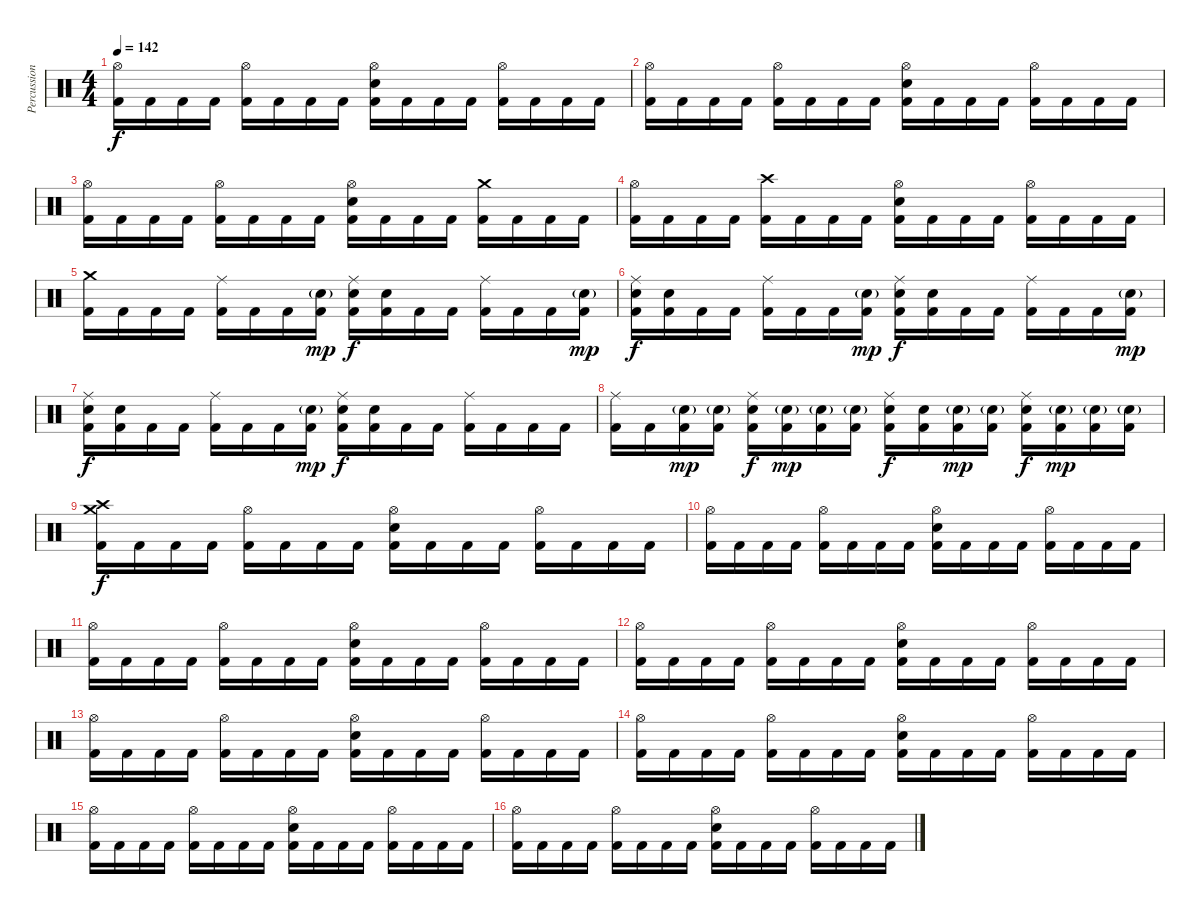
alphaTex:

\track ("Percussion" "Percussion") {instrument percussion}
\staff {score}
\articulation defaults
\ts (4 4)
\tempo 142
\clef neutral
\ks c
("Hi-Hat (open)" "Kick (hit) 2").16{dy f} "Kick (hit) 2".16 "Kick (hit) 2".16 "Kick (hit) 2".16 ("Hi-Hat (open)" "Kick (hit) 2").16 "Kick (hit) 2".16 "Kick (hit) 2".16 "Kick (hit) 2".16 ("Hi-Hat (open)" "Electric Snare (hit)" "Kick (hit) 2").16 "Kick (hit) 2".16 "Kick (hit) 2".16 "Kick (hit) 2".16 ("Hi-Hat (open)" "Kick (hit) 2").16 "Kick (hit) 2".16 "Kick (hit) 2".16 "Kick (hit) 2".16 |
("Hi-Hat (open)" "Kick (hit) 2").16 "Kick (hit) 2".16 "Kick (hit) 2".16 "Kick (hit) 2".16 ("Hi-Hat (open)" "Kick (hit) 2").16 "Kick (hit) 2".16 "Kick (hit) 2".16 "Kick (hit) 2".16 ("Hi-Hat (open)" "Electric Snare (hit)" "Kick (hit) 2").16 "Kick (hit) 2".16 "Kick (hit) 2".16 "Kick (hit) 2".16 ("Hi-Hat (open)" "Kick (hit) 2").16 "Kick (hit) 2".16 "Kick (hit) 2".16 "Kick (hit) 2".16 |
("Hi-Hat (open)" "Kick (hit) 2").16 "Kick (hit) 2".16 "Kick (hit) 2".16 "Kick (hit) 2".16 ("Hi-Hat (open)" "Kick (hit) 2").16 "Kick (hit) 2".16 "Kick (hit) 2".16 "Kick (hit) 2".16 ("Hi-Hat (open)" "Electric Snare (hit)" "Kick (hit) 2").16 "Kick (hit) 2".16 "Kick (hit) 2".16 "Kick (hit) 2".16 ("Crash medium (hit)" "Kick (hit) 2").16 "Kick (hit) 2".16 "Kick (hit) 2".16 "Kick (hit) 2".16 |
("Hi-Hat (open)" "Kick (hit) 2").16 "Kick (hit) 2".16 "Kick (hit) 2".16 "Kick (hit) 2".16 ("Crash high (hit)" "Kick (hit) 2").16 "Kick (hit) 2".16 "Kick (hit) 2".16 "Kick (hit) 2".16 ("Hi-Hat (open)" "Electric Snare (hit)" "Kick (hit) 2").16 "Kick (hit) 2".16 "Kick (hit) 2".16 "Kick (hit) 2".16 ("Hi-Hat (open)" "Kick (hit) 2").16 "Kick (hit) 2".16 "Kick (hit) 2".16 "Kick (hit) 2".16 |
("Crash medium (hit)" "Kick (hit) 2").16 "Kick (hit) 2".16 "Kick (hit) 2".16 "Kick (hit) 2".16 ("Ride (middle)" "Kick (hit) 2").16 "Kick (hit) 2".16 "Kick (hit) 2".16 ("Electric Snare (hit)"{g} "Kick (hit) 2").16{dy mp} ("Ride (middle)" "Electric Snare (hit)" "Kick (hit) 2").16{dy f} ("Electric Snare (hit)" "Kick (hit) 2").16 "Kick (hit) 2".16 "Kick (hit) 2".16 ("Ride (middle)" "Kick (hit) 2").16 "Kick (hit) 2".16 "Kick (hit) 2".16 ("Electric Snare (hit)"{g} "Kick (hit) 2").16{dy mp} |
("Ride (middle)" "Electric Snare (hit)" "Kick (hit) 2").16{dy f} ("Electric Snare (hit)" "Kick (hit) 2").16 "Kick (hit) 2".16 "Kick (hit) 2".16 ("Ride (middle)" "Kick (hit) 2").16 "Kick (hit) 2".16 "Kick (hit) 2".16 ("Electric Snare (hit)"{g} "Kick (hit) 2").16{dy mp} ("Ride (middle)" "Electric Snare (hit)" "Kick (hit) 2").16{dy f} ("Electric Snare (hit)" "Kick (hit) 2").16 "Kick (hit) 2".16 "Kick (hit) 2".16 ("Ride (middle)" "Kick (hit) 2").16 "Kick (hit) 2".16 "Kick (hit) 2".16 ("Electric Snare (hit)"{g} "Kick (hit) 2").16{dy mp} |
("Ride (middle)" "Electric Snare (hit)" "Kick (hit) 2").16{dy f} ("Electric Snare (hit)" "Kick (hit) 2").16 "Kick (hit) 2".16 "Kick (hit) 2".16 ("Ride (middle)" "Kick (hit) 2").16 "Kick (hit) 2".16 "Kick (hit) 2".16 ("Electric Snare (hit)"{g} "Kick (hit) 2").16{dy mp} ("Ride (middle)" "Electric Snare (hit)" "Kick (hit) 2").16{dy f} ("Electric Snare (hit)" "Kick (hit) 2").16 "Kick (hit) 2".16 "Kick (hit) 2".16 ("Ride (middle)" "Kick (hit) 2").16 "Kick (hit) 2".16 "Kick (hit) 2".16 "Kick (hit) 2".16 |
("Ride (middle)" "Kick (hit) 2").16 "Kick (hit) 2".16 ("Electric Snare (hit)"{g} "Kick (hit) 2").16{dy mp} ("Electric Snare (hit)"{g} "Kick (hit) 2").16 ("Ride (middle)" "Electric Snare (hit)" "Kick (hit) 2").16{dy f} ("Electric Snare (hit)"{g} "Kick (hit) 2").16{dy mp} ("Electric Snare (hit)"{g} "Kick (hit) 2").16 ("Electric Snare (hit)"{g} "Kick (hit) 2").16 ("Ride (middle)" "Electric Snare (hit)" "Kick (hit) 2").16{dy f} ("Electric Snare (hit)" "Kick (hit) 2").16 ("Electric Snare (hit)"{g} "Kick (hit) 2").16{dy mp} ("Electric Snare (hit)"{g} "Kick (hit) 2").16 ("Ride (middle)" "Electric Snare (hit)" "Kick (hit) 2").16{dy f} ("Electric Snare (hit)"{g} "Kick (hit) 2").16{dy mp} ("Electric Snare (hit)"{g} "Kick (hit) 2").16 ("Electric Snare (hit)"{g} "Kick (hit) 2").16 |
("Crash medium (hit)" "Crash high (hit)" "Kick (hit) 2").16{dy f} "Kick (hit) 2".16 "Kick (hit) 2".16 "Kick (hit) 2".16 ("Hi-Hat (open)" "Kick (hit) 2").16 "Kick (hit) 2".16 "Kick (hit) 2".16 "Kick (hit) 2".16 ("Hi-Hat (open)" "Electric Snare (hit)" "Kick (hit) 2").16 "Kick (hit) 2".16 "Kick (hit) 2".16 "Kick (hit) 2".16 ("Hi-Hat (open)" "Kick (hit) 2").16 "Kick (hit) 2".16 "Kick (hit) 2".16 "Kick (hit) 2".16 |
("Hi-Hat (open)" "Kick (hit) 2").16 "Kick (hit) 2".16 "Kick (hit) 2".16 "Kick (hit) 2".16 ("Hi-Hat (open)" "Kick (hit) 2").16 "Kick (hit) 2".16 "Kick (hit) 2".16 "Kick (hit) 2".16 ("Hi-Hat (open)" "Electric Snare (hit)" "Kick (hit) 2").16 "Kick (hit) 2".16 "Kick (hit) 2".16 "Kick (hit) 2".16 ("Hi-Hat (open)" "Kick (hit) 2").16 "Kick (hit) 2".16 "Kick (hit) 2".16 "Kick (hit) 2".16 |
("Hi-Hat (open)" "Kick (hit) 2").16 "Kick (hit) 2".16 "Kick (hit) 2".16 "Kick (hit) 2".16 ("Hi-Hat (open)" "Kick (hit) 2").16 "Kick (hit) 2".16 "Kick (hit) 2".16 "Kick (hit) 2".16 ("Hi-Hat (open)" "Electric Snare (hit)" "Kick (hit) 2").16 "Kick (hit) 2".16 "Kick (hit) 2".16 "Kick (hit) 2".16 ("Hi-Hat (open)" "Kick (hit) 2").16 "Kick (hit) 2".16 "Kick (hit) 2".16 "Kick (hit) 2".16 |
("Hi-Hat (open)" "Kick (hit) 2").16 "Kick (hit) 2".16 "Kick (hit) 2".16 "Kick (hit) 2".16 ("Hi-Hat (open)" "Kick (hit) 2").16 "Kick (hit) 2".16 "Kick (hit) 2".16 "Kick (hit) 2".16 ("Hi-Hat (open)" "Electric Snare (hit)" "Kick (hit) 2").16 "Kick (hit) 2".16 "Kick (hit) 2".16 "Kick (hit) 2".16 ("Hi-Hat (open)" "Kick (hit) 2").16 "Kick (hit) 2".16 "Kick (hit) 2".16 "Kick (hit) 2".16 |
("Hi-Hat (open)" "Kick (hit) 2").16 "Kick (hit) 2".16 "Kick (hit) 2".16 "Kick (hit) 2".16 ("Hi-Hat (open)" "Kick (hit) 2").16 "Kick (hit) 2".16 "Kick (hit) 2".16 "Kick (hit) 2".16 ("Hi-Hat (open)" "Electric Snare (hit)" "Kick (hit) 2").16 "Kick (hit) 2".16 "Kick (hit) 2".16 "Kick (hit) 2".16 ("Hi-Hat (open)" "Kick (hit) 2").16 "Kick (hit) 2".16 "Kick (hit) 2".16 "Kick (hit) 2".16 |
("Hi-Hat (open)" "Kick (hit) 2").16 "Kick (hit) 2".16 "Kick (hit) 2".16 "Kick (hit) 2".16 ("Hi-Hat (open)" "Kick (hit) 2").16 "Kick (hit) 2".16 "Kick (hit) 2".16 "Kick (hit) 2".16 ("Hi-Hat (open)" "Electric Snare (hit)" "Kick (hit) 2").16 "Kick (hit) 2".16 "Kick (hit) 2".16 "Kick (hit) 2".16 ("Hi-Hat (open)" "Kick (hit) 2").16 "Kick (hit) 2".16 "Kick (hit) 2".16 "Kick (hit) 2".16 |
("Hi-Hat (open)" "Kick (hit) 2").16 "Kick (hit) 2".16 "Kick (hit) 2".16 "Kick (hit) 2".16 ("Hi-Hat (open)" "Kick (hit) 2").16 "Kick (hit) 2".16 "Kick (hit) 2".16 "Kick (hit) 2".16 ("Hi-Hat (open)" "Electric Snare (hit)" "Kick (hit) 2").16 "Kick (hit) 2".16 "Kick (hit) 2".16 "Kick (hit) 2".16 ("Hi-Hat (open)" "Kick (hit) 2").16 "Kick (hit) 2".16 "Kick (hit) 2".16 "Kick (hit) 2".16 |
("Hi-Hat (open)" "Kick (hit) 2").16 "Kick (hit) 2".16 "Kick (hit) 2".16 "Kick (hit) 2".16 ("Hi-Hat (open)" "Kick (hit) 2").16 "Kick (hit) 2".16 "Kick (hit) 2".16 "Kick (hit) 2".16 ("Hi-Hat (open)" "Electric Snare (hit)" "Kick (hit) 2").16 "Kick (hit) 2".16 "Kick (hit) 2".16 "Kick (hit) 2".16 ("Hi-Hat (open)" "Kick (hit) 2").16 "Kick (hit) 2".16 "Kick (hit) 2".16 "Kick (hit) 2".16
